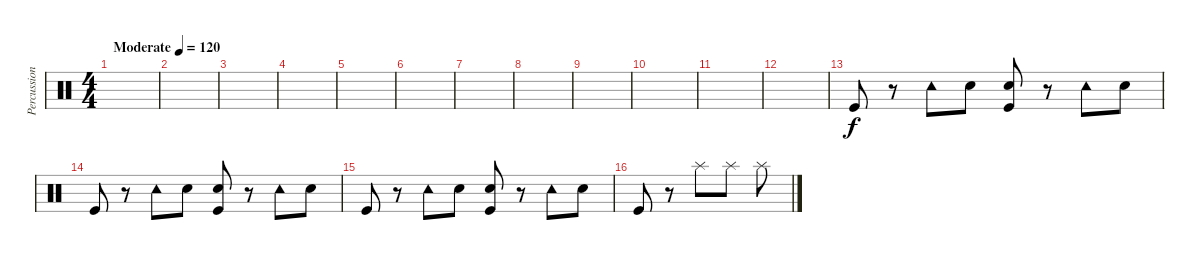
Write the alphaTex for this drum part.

\track ("Percussion" "Percussion") {instrument percussion}
\staff {score}
\articulation defaults
\ts (4 4)
\tempo (120 "Moderate")
\clef neutral
\ks c
|
|
|
|
|
|
|
|
|
|
|
|
"Kick (hit)".8 r.8 "Tambourine (hit)".8 "Metronome (bell)".8 ("Snare (hit) 2" "Kick (hit)").8 r.8 "Tambourine (hit)".8 "Metronome (bell)".8 |
"Kick (hit)".8 r.8 "Tambourine (hit)".8 "Metronome (bell)".8 ("Snare (hit) 2" "Kick (hit)").8 r.8 "Tambourine (hit)".8 "Metronome (bell)".8 |
"Kick (hit)".8 r.8 "Tambourine (hit)".8 "Metronome (bell)".8 ("Snare (hit) 2" "Kick (hit)").8 r.8 "Tambourine (hit)".8 "Metronome (bell)".8 |
"Kick (hit)".8 r.8 "Splash (hit)".8 "Splash (hit)".8 "Splash (hit)".8
